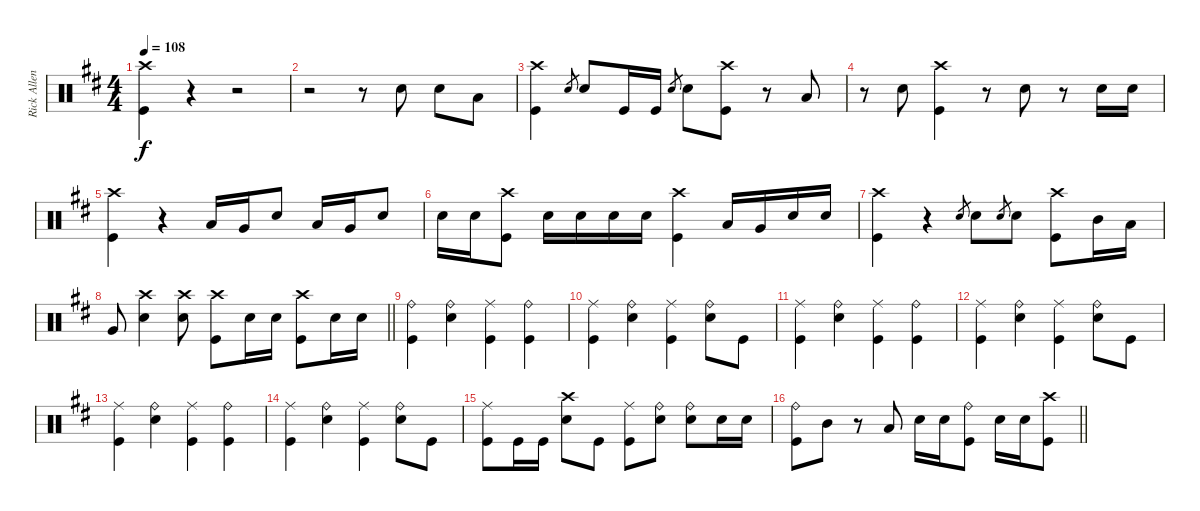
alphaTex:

\track ("Rick Allen" "Rick Allen") {instrument percussion}
\staff {score}
\articulation defaults
\ts (4 4)
\tempo 108
\clef neutral
\ks d
("Crash high (hit)" "Kick (hit)").4{dy f} r.4 r.2 |
r.2 r.8 "Snare (hit) 2".8 "Snare (hit) 2".8 "Low Tom (hit)".8 |
("Crash high (hit)" "Kick (hit)").4 "Snare (hit) 2".8{gr} "Snare (hit) 2".8 "Kick (hit)".16 "Kick (hit)".16 "Snare (hit) 2".8{gr} "Snare (hit) 2".8 ("Crash high (hit)" "Kick (hit)").8 r.8 "Low Tom (hit)".8 |
r.8 "Snare (hit) 2".8 ("Crash high (hit)" "Kick (hit)").4 r.8 "Snare (hit) 2".8 r.8 "Snare (hit) 2".16 "Snare (hit) 2".16 |
("Crash high (hit)" "Kick (hit)").4 r.4 "Low Tom (hit)".16 "Very Low Tom (hit)".16 "Snare (hit) 2".8 "Low Tom (hit)".16 "Very Low Tom (hit)".16 "Snare (hit) 2".8 |
"Snare (hit) 2".16 "Snare (hit) 2".16 ("Crash high (hit)" "Kick (hit)").8 "Snare (hit) 2".16 "Snare (hit) 2".16 "Snare (hit) 2".16 "Snare (hit) 2".16 ("Crash high (hit)" "Kick (hit)").4 "Low Tom (hit)".16 "Very Low Tom (hit)".16 "Snare (hit) 2".16 "Snare (hit) 2".16 |
("Crash high (hit)" "Kick (hit)").4 r.4 "Snare (hit) 2".8{gr} "Snare (hit) 2".8 "Snare (hit) 2".8{gr} "Snare (hit) 2".8 ("Crash high (hit)" "Kick (hit)").8 "Mid Tom (hit)".16 "Low Tom (hit)".16 |
\barLineRight lightlight "Very Low Tom (hit)".8
("Crash high (hit)" "Snare (hit) 2").4 ("Crash high (hit)" "Snare (hit) 2").8 ("Crash high (hit)" "Kick (hit)").8 "Snare (hit) 2".16 "Snare (hit) 2".16 ("Crash high (hit)" "Kick (hit)").8 "Snare (hit) 2".16 "Snare (hit) 2".16 |
("Ride (bell)" "Kick (hit)").4 ("Ride (bell)" "Snare (hit) 2").4 ("Ride (middle)" "Kick (hit)").4 ("Ride (bell)" "Kick (hit)").4 |
("Ride (middle)" "Kick (hit)").4 ("Ride (bell)" "Snare (hit) 2").4 ("Ride (middle)" "Kick (hit)").4 ("Ride (bell)" "Snare (hit) 2").8 "Kick (hit)".8 |
("Ride (middle)" "Kick (hit)").4 ("Ride (bell)" "Snare (hit) 2").4 ("Ride (middle)" "Kick (hit)").4 ("Ride (bell)" "Kick (hit)").4 |
("Ride (middle)" "Kick (hit)").4 ("Ride (bell)" "Snare (hit) 2").4 ("Ride (middle)" "Kick (hit)").4 ("Ride (bell)" "Snare (hit) 2").8 "Kick (hit)".8 |
("Ride (middle)" "Kick (hit)").4 ("Ride (bell)" "Snare (hit) 2").4 ("Ride (middle)" "Kick (hit)").4 ("Ride (bell)" "Kick (hit)").4 |
("Ride (middle)" "Kick (hit)").4 ("Ride (bell)" "Snare (hit) 2").4 ("Ride (middle)" "Kick (hit)").4 ("Ride (bell)" "Snare (hit) 2").8 "Kick (hit)".8 |
("Ride (middle)" "Kick (hit)").8 "Kick (hit)".16 "Kick (hit)".16 ("Crash high (hit)" "Snare (hit) 2").8 "Kick (hit)".8 ("Ride (middle)" "Kick (hit)").8 ("Ride (bell)" "Snare (hit) 2").8 ("Ride (bell)" "Snare (hit) 2").8 "Snare (hit) 2".16 "Snare (hit) 2".16 |
\barLineRight lightlight
("Ride (bell)" "Kick (hit)").8 "Mid Tom (hit)".8 r.8 "Low Tom (hit)".8 "Snare (hit) 2".16 "Snare (hit) 2".16 ("Ride (bell)" "Kick (hit)").8 "Snare (hit) 2".16 "Snare (hit) 2".16 ("Crash high (hit)" "Kick (hit)").8
